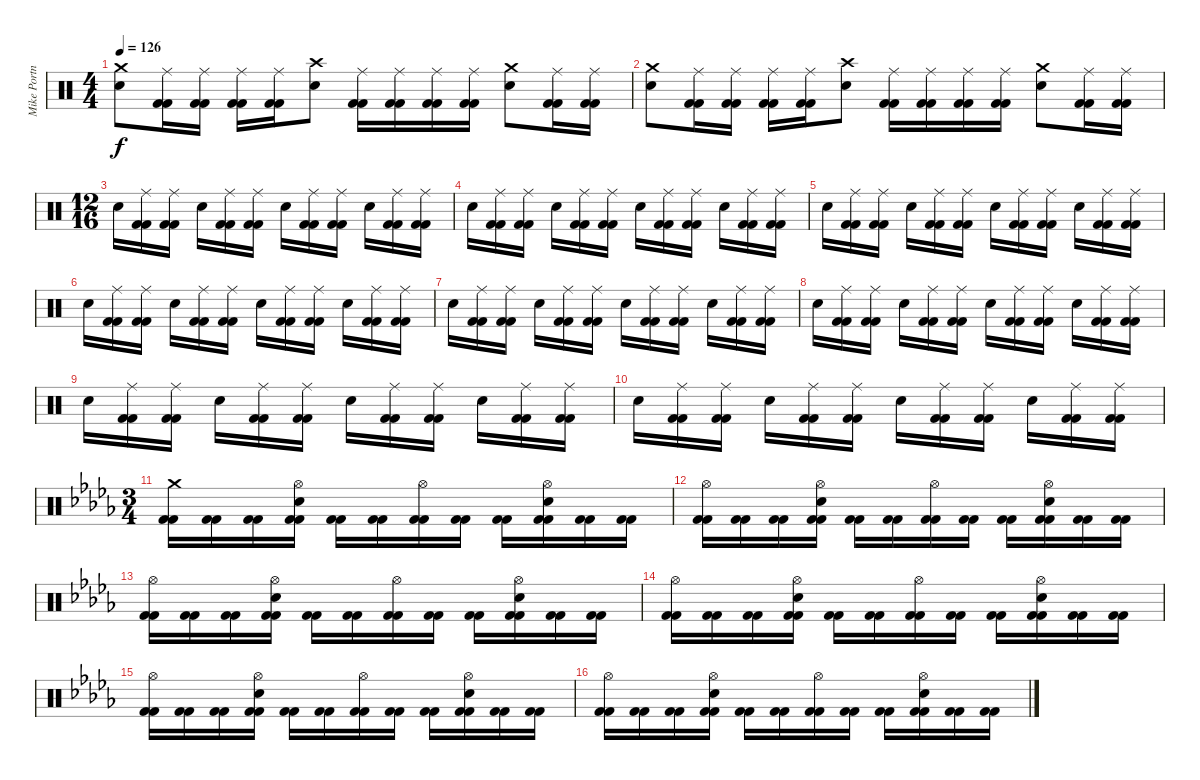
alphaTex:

\track ("Mike Portnoy" "Mike Portn") {instrument percussion}
\staff {score}
\articulation defaults
\ts (4 4)
\tempo 126
\clef neutral
\ks c
("Crash medium (hit)" "Electric Snare (hit)").8{dy f} ("Ride (middle)" "Kick (hit) 2" "Kick (hit) 2").16 ("Ride (middle)" "Kick (hit) 2" "Kick (hit) 2").16 ("Ride (middle)" "Kick (hit) 2" "Kick (hit) 2").16 ("Ride (middle)" "Kick (hit) 2" "Kick (hit) 2").16 ("Crash high (hit)" "Electric Snare (hit)").8 ("Ride (middle)" "Kick (hit) 2" "Kick (hit) 2").16 ("Ride (middle)" "Kick (hit) 2" "Kick (hit) 2").16 ("Ride (middle)" "Kick (hit) 2" "Kick (hit) 2").16 ("Ride (middle)" "Kick (hit) 2" "Kick (hit) 2").16 ("Crash medium (hit)" "Electric Snare (hit)").8 ("Ride (middle)" "Kick (hit) 2" "Kick (hit) 2").16 ("Ride (middle)" "Kick (hit) 2" "Kick (hit) 2").16 |
("Crash medium (hit)" "Electric Snare (hit)").8 ("Ride (middle)" "Kick (hit) 2" "Kick (hit) 2").16 ("Ride (middle)" "Kick (hit) 2" "Kick (hit) 2").16 ("Ride (middle)" "Kick (hit) 2" "Kick (hit) 2").16 ("Ride (middle)" "Kick (hit) 2" "Kick (hit) 2").16 ("Crash high (hit)" "Electric Snare (hit)").8 ("Ride (middle)" "Kick (hit) 2" "Kick (hit) 2").16 ("Ride (middle)" "Kick (hit) 2" "Kick (hit) 2").16 ("Ride (middle)" "Kick (hit) 2" "Kick (hit) 2").16 ("Ride (middle)" "Kick (hit) 2" "Kick (hit) 2").16 ("Crash medium (hit)" "Electric Snare (hit)").8 ("Ride (middle)" "Kick (hit) 2" "Kick (hit) 2").16 ("Ride (middle)" "Kick (hit) 2" "Kick (hit) 2").16 |
\ts (12 16)
"Electric Snare (hit)".16 ("Ride (middle)" "Kick (hit) 2" "Kick (hit) 2").16 ("Ride (middle)" "Kick (hit) 2" "Kick (hit) 2").16 "Electric Snare (hit)".16 ("Ride (middle)" "Kick (hit) 2" "Kick (hit) 2").16 ("Ride (middle)" "Kick (hit) 2" "Kick (hit) 2").16 "Electric Snare (hit)".16 ("Ride (middle)" "Kick (hit) 2" "Kick (hit) 2").16 ("Ride (middle)" "Kick (hit) 2" "Kick (hit) 2").16 "Electric Snare (hit)".16 ("Ride (middle)" "Kick (hit) 2" "Kick (hit) 2").16 ("Ride (middle)" "Kick (hit) 2" "Kick (hit) 2").16 |
"Electric Snare (hit)".16 ("Ride (middle)" "Kick (hit) 2" "Kick (hit) 2").16 ("Ride (middle)" "Kick (hit) 2" "Kick (hit) 2").16 "Electric Snare (hit)".16 ("Ride (middle)" "Kick (hit) 2" "Kick (hit) 2").16 ("Ride (middle)" "Kick (hit) 2" "Kick (hit) 2").16 "Electric Snare (hit)".16 ("Ride (middle)" "Kick (hit) 2" "Kick (hit) 2").16 ("Ride (middle)" "Kick (hit) 2" "Kick (hit) 2").16 "Electric Snare (hit)".16 ("Ride (middle)" "Kick (hit) 2" "Kick (hit) 2").16 ("Ride (middle)" "Kick (hit) 2" "Kick (hit) 2").16 |
"Electric Snare (hit)".16 ("Ride (middle)" "Kick (hit) 2" "Kick (hit) 2").16 ("Ride (middle)" "Kick (hit) 2" "Kick (hit) 2").16 "Electric Snare (hit)".16 ("Ride (middle)" "Kick (hit) 2" "Kick (hit) 2").16 ("Ride (middle)" "Kick (hit) 2" "Kick (hit) 2").16 "Electric Snare (hit)".16 ("Ride (middle)" "Kick (hit) 2" "Kick (hit) 2").16 ("Ride (middle)" "Kick (hit) 2" "Kick (hit) 2").16 "Electric Snare (hit)".16 ("Ride (middle)" "Kick (hit) 2" "Kick (hit) 2").16 ("Ride (middle)" "Kick (hit) 2" "Kick (hit) 2").16 |
"Electric Snare (hit)".16 ("Ride (middle)" "Kick (hit) 2" "Kick (hit) 2").16 ("Ride (middle)" "Kick (hit) 2" "Kick (hit) 2").16 "Electric Snare (hit)".16 ("Ride (middle)" "Kick (hit) 2" "Kick (hit) 2").16 ("Ride (middle)" "Kick (hit) 2" "Kick (hit) 2").16 "Electric Snare (hit)".16 ("Ride (middle)" "Kick (hit) 2" "Kick (hit) 2").16 ("Ride (middle)" "Kick (hit) 2" "Kick (hit) 2").16 "Electric Snare (hit)".16 ("Ride (middle)" "Kick (hit) 2" "Kick (hit) 2").16 ("Ride (middle)" "Kick (hit) 2" "Kick (hit) 2").16 |
"Electric Snare (hit)".16 ("Ride (middle)" "Kick (hit) 2" "Kick (hit) 2").16 ("Ride (middle)" "Kick (hit) 2" "Kick (hit) 2").16 "Electric Snare (hit)".16 ("Ride (middle)" "Kick (hit) 2" "Kick (hit) 2").16 ("Ride (middle)" "Kick (hit) 2" "Kick (hit) 2").16 "Electric Snare (hit)".16 ("Ride (middle)" "Kick (hit) 2" "Kick (hit) 2").16 ("Ride (middle)" "Kick (hit) 2" "Kick (hit) 2").16 "Electric Snare (hit)".16 ("Ride (middle)" "Kick (hit) 2" "Kick (hit) 2").16 ("Ride (middle)" "Kick (hit) 2" "Kick (hit) 2").16 |
"Electric Snare (hit)".16 ("Ride (middle)" "Kick (hit) 2" "Kick (hit) 2").16 ("Ride (middle)" "Kick (hit) 2" "Kick (hit) 2").16 "Electric Snare (hit)".16 ("Ride (middle)" "Kick (hit) 2" "Kick (hit) 2").16 ("Ride (middle)" "Kick (hit) 2" "Kick (hit) 2").16 "Electric Snare (hit)".16 ("Ride (middle)" "Kick (hit) 2" "Kick (hit) 2").16 ("Ride (middle)" "Kick (hit) 2" "Kick (hit) 2").16 "Electric Snare (hit)".16 ("Ride (middle)" "Kick (hit) 2" "Kick (hit) 2").16 ("Ride (middle)" "Kick (hit) 2" "Kick (hit) 2").16 |
"Electric Snare (hit)".16 ("Ride (middle)" "Kick (hit) 2" "Kick (hit) 2").16 ("Ride (middle)" "Kick (hit) 2" "Kick (hit) 2").16 "Electric Snare (hit)".16 ("Ride (middle)" "Kick (hit) 2" "Kick (hit) 2").16 ("Ride (middle)" "Kick (hit) 2" "Kick (hit) 2").16 "Electric Snare (hit)".16 ("Ride (middle)" "Kick (hit) 2" "Kick (hit) 2").16 ("Ride (middle)" "Kick (hit) 2" "Kick (hit) 2").16 "Electric Snare (hit)".16 ("Ride (middle)" "Kick (hit) 2" "Kick (hit) 2").16 ("Ride (middle)" "Kick (hit) 2" "Kick (hit) 2").16 |
"Electric Snare (hit)".16 ("Ride (middle)" "Kick (hit) 2" "Kick (hit) 2").16 ("Ride (middle)" "Kick (hit) 2" "Kick (hit) 2").16 "Electric Snare (hit)".16 ("Ride (middle)" "Kick (hit) 2" "Kick (hit) 2").16 ("Ride (middle)" "Kick (hit) 2" "Kick (hit) 2").16 "Electric Snare (hit)".16 ("Ride (middle)" "Kick (hit) 2" "Kick (hit) 2").16 ("Ride (middle)" "Kick (hit) 2" "Kick (hit) 2").16 "Electric Snare (hit)".16 ("Ride (middle)" "Kick (hit) 2" "Kick (hit) 2").16 ("Ride (middle)" "Kick (hit) 2" "Kick (hit) 2").16 |
\ts (3 4)
\ks bbminor
("Crash medium (hit)" "Kick (hit) 2" "Kick (hit) 2").16 ("Kick (hit) 2" "Kick (hit) 2").16 ("Kick (hit) 2" "Kick (hit) 2").16 ("Hi-Hat (open)" "Electric Snare (hit)" "Kick (hit) 2" "Kick (hit) 2").16 ("Kick (hit) 2" "Kick (hit) 2").16 ("Kick (hit) 2" "Kick (hit) 2").16 ("Hi-Hat (open)" "Kick (hit) 2" "Kick (hit) 2").16 ("Kick (hit) 2" "Kick (hit) 2").16 ("Kick (hit) 2" "Kick (hit) 2").16 ("Hi-Hat (open)" "Electric Snare (hit)" "Kick (hit) 2" "Kick (hit) 2").16 ("Kick (hit) 2" "Kick (hit) 2").16 ("Kick (hit) 2" "Kick (hit) 2").16 |
("Hi-Hat (open)" "Kick (hit) 2" "Kick (hit) 2").16 ("Kick (hit) 2" "Kick (hit) 2").16 ("Kick (hit) 2" "Kick (hit) 2").16 ("Hi-Hat (open)" "Electric Snare (hit)" "Kick (hit) 2" "Kick (hit) 2").16 ("Kick (hit) 2" "Kick (hit) 2").16 ("Kick (hit) 2" "Kick (hit) 2").16 ("Hi-Hat (open)" "Kick (hit) 2" "Kick (hit) 2").16 ("Kick (hit) 2" "Kick (hit) 2").16 ("Kick (hit) 2" "Kick (hit) 2").16 ("Hi-Hat (open)" "Electric Snare (hit)" "Kick (hit) 2" "Kick (hit) 2").16 ("Kick (hit) 2" "Kick (hit) 2").16 ("Kick (hit) 2" "Kick (hit) 2").16 |
("Hi-Hat (open)" "Kick (hit) 2" "Kick (hit) 2").16 ("Kick (hit) 2" "Kick (hit) 2").16 ("Kick (hit) 2" "Kick (hit) 2").16 ("Hi-Hat (open)" "Electric Snare (hit)" "Kick (hit) 2" "Kick (hit) 2").16 ("Kick (hit) 2" "Kick (hit) 2").16 ("Kick (hit) 2" "Kick (hit) 2").16 ("Hi-Hat (open)" "Kick (hit) 2" "Kick (hit) 2").16 ("Kick (hit) 2" "Kick (hit) 2").16 ("Kick (hit) 2" "Kick (hit) 2").16 ("Hi-Hat (open)" "Electric Snare (hit)" "Kick (hit) 2" "Kick (hit) 2").16 ("Kick (hit) 2" "Kick (hit) 2").16 ("Kick (hit) 2" "Kick (hit) 2").16 |
("Hi-Hat (open)" "Kick (hit) 2" "Kick (hit) 2").16 ("Kick (hit) 2" "Kick (hit) 2").16 ("Kick (hit) 2" "Kick (hit) 2").16 ("Hi-Hat (open)" "Electric Snare (hit)" "Kick (hit) 2" "Kick (hit) 2").16 ("Kick (hit) 2" "Kick (hit) 2").16 ("Kick (hit) 2" "Kick (hit) 2").16 ("Hi-Hat (open)" "Kick (hit) 2" "Kick (hit) 2").16 ("Kick (hit) 2" "Kick (hit) 2").16 ("Kick (hit) 2" "Kick (hit) 2").16 ("Hi-Hat (open)" "Electric Snare (hit)" "Kick (hit) 2" "Kick (hit) 2").16 ("Kick (hit) 2" "Kick (hit) 2").16 ("Kick (hit) 2" "Kick (hit) 2").16 |
("Hi-Hat (open)" "Kick (hit) 2" "Kick (hit) 2").16 ("Kick (hit) 2" "Kick (hit) 2").16 ("Kick (hit) 2" "Kick (hit) 2").16 ("Hi-Hat (open)" "Electric Snare (hit)" "Kick (hit) 2" "Kick (hit) 2").16 ("Kick (hit) 2" "Kick (hit) 2").16 ("Kick (hit) 2" "Kick (hit) 2").16 ("Hi-Hat (open)" "Kick (hit) 2" "Kick (hit) 2").16 ("Kick (hit) 2" "Kick (hit) 2").16 ("Kick (hit) 2" "Kick (hit) 2").16 ("Hi-Hat (open)" "Electric Snare (hit)" "Kick (hit) 2" "Kick (hit) 2").16 ("Kick (hit) 2" "Kick (hit) 2").16 ("Kick (hit) 2" "Kick (hit) 2").16 |
("Hi-Hat (open)" "Kick (hit) 2" "Kick (hit) 2").16 ("Kick (hit) 2" "Kick (hit) 2").16 ("Kick (hit) 2" "Kick (hit) 2").16 ("Hi-Hat (open)" "Electric Snare (hit)" "Kick (hit) 2" "Kick (hit) 2").16 ("Kick (hit) 2" "Kick (hit) 2").16 ("Kick (hit) 2" "Kick (hit) 2").16 ("Hi-Hat (open)" "Kick (hit) 2" "Kick (hit) 2").16 ("Kick (hit) 2" "Kick (hit) 2").16 ("Kick (hit) 2" "Kick (hit) 2").16 ("Hi-Hat (open)" "Electric Snare (hit)" "Kick (hit) 2" "Kick (hit) 2").16 ("Kick (hit) 2" "Kick (hit) 2").16 ("Kick (hit) 2" "Kick (hit) 2").16
